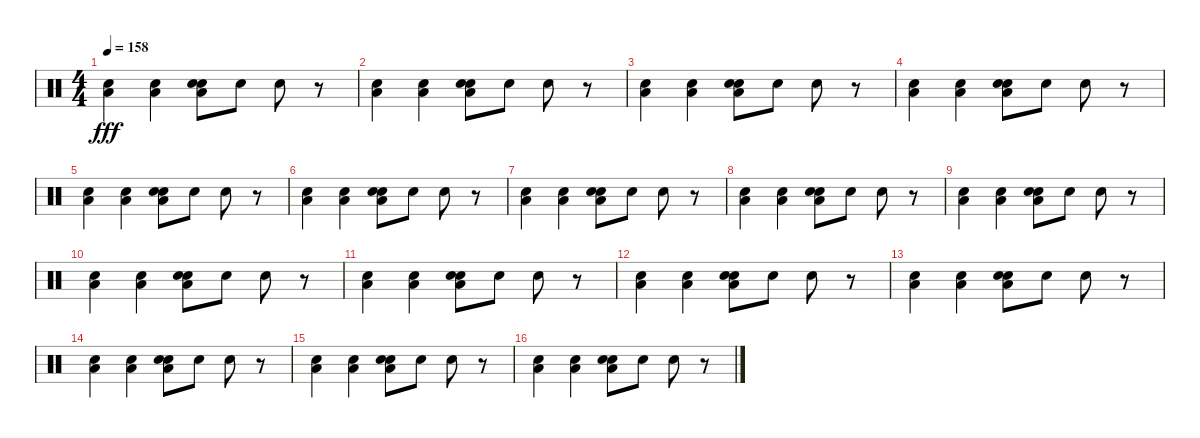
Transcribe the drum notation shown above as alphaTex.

\track "" {instrument percussion}
\staff {score}
\articulation defaults
\ts (4 4)
\tempo 158
\clef neutral
\ks c
("Low Floor Tom (hit)" "Snare (hit) 2").4{dy fff} ("Low Floor Tom (hit)" "Snare (hit) 2").4 ("Electric Snare (hit)" "Low Floor Tom (hit)" "Snare (hit) 2").8 "Electric Snare (hit)".8 "Electric Snare (hit)".8 r.8 |
("Low Floor Tom (hit)" "Electric Snare (hit)").4 ("Low Floor Tom (hit)" "Electric Snare (hit)").4 ("Electric Snare (hit)" "Low Floor Tom (hit)" "Electric Snare (hit)").8 "Electric Snare (hit)".8 "Electric Snare (hit)".8 r.8 |
("Low Floor Tom (hit)" "Electric Snare (hit)").4 ("Low Floor Tom (hit)" "Electric Snare (hit)").4 ("Electric Snare (hit)" "Low Floor Tom (hit)" "Electric Snare (hit)").8 "Electric Snare (hit)".8 "Electric Snare (hit)".8 r.8 |
("Low Floor Tom (hit)" "Electric Snare (hit)").4 ("Low Floor Tom (hit)" "Electric Snare (hit)").4 ("Electric Snare (hit)" "Low Floor Tom (hit)" "Electric Snare (hit)").8 "Electric Snare (hit)".8 "Electric Snare (hit)".8 r.8 |
("Low Floor Tom (hit)" "Electric Snare (hit)").4 ("Low Floor Tom (hit)" "Electric Snare (hit)").4 ("Electric Snare (hit)" "Low Floor Tom (hit)" "Electric Snare (hit)").8 "Electric Snare (hit)".8 "Electric Snare (hit)".8 r.8 |
("Low Floor Tom (hit)" "Snare (hit) 2").4 ("Low Floor Tom (hit)" "Snare (hit) 2").4 ("Electric Snare (hit)" "Low Floor Tom (hit)" "Snare (hit) 2").8 "Electric Snare (hit)".8 "Electric Snare (hit)".8 r.8 |
("Low Floor Tom (hit)" "Snare (hit) 2").4 ("Low Floor Tom (hit)" "Snare (hit) 2").4 ("Electric Snare (hit)" "Low Floor Tom (hit)" "Snare (hit) 2").8 "Electric Snare (hit)".8 "Electric Snare (hit)".8 r.8 |
("Low Floor Tom (hit)" "Electric Snare (hit)").4 ("Low Floor Tom (hit)" "Electric Snare (hit)").4 ("Electric Snare (hit)" "Low Floor Tom (hit)" "Electric Snare (hit)").8 "Electric Snare (hit)".8 "Electric Snare (hit)".8 r.8 |
("Low Floor Tom (hit)" "Electric Snare (hit)").4 ("Low Floor Tom (hit)" "Electric Snare (hit)").4 ("Electric Snare (hit)" "Low Floor Tom (hit)" "Electric Snare (hit)").8 "Electric Snare (hit)".8 "Electric Snare (hit)".8 r.8 |
("Low Floor Tom (hit)" "Electric Snare (hit)").4 ("Low Floor Tom (hit)" "Electric Snare (hit)").4 ("Electric Snare (hit)" "Low Floor Tom (hit)" "Electric Snare (hit)").8 "Electric Snare (hit)".8 "Electric Snare (hit)".8 r.8 |
("Low Floor Tom (hit)" "Electric Snare (hit)").4 ("Low Floor Tom (hit)" "Electric Snare (hit)").4 ("Electric Snare (hit)" "Low Floor Tom (hit)" "Electric Snare (hit)").8 "Electric Snare (hit)".8 "Electric Snare (hit)".8 r.8 |
("Low Floor Tom (hit)" "Snare (hit) 2").4 ("Low Floor Tom (hit)" "Snare (hit) 2").4 ("Electric Snare (hit)" "Low Floor Tom (hit)" "Snare (hit) 2").8 "Electric Snare (hit)".8 "Electric Snare (hit)".8 r.8 |
("Low Floor Tom (hit)" "Snare (hit) 2").4 ("Low Floor Tom (hit)" "Snare (hit) 2").4 ("Electric Snare (hit)" "Low Floor Tom (hit)" "Snare (hit) 2").8 "Electric Snare (hit)".8 "Electric Snare (hit)".8 r.8 |
("Low Floor Tom (hit)" "Electric Snare (hit)").4 ("Low Floor Tom (hit)" "Electric Snare (hit)").4 ("Electric Snare (hit)" "Low Floor Tom (hit)" "Electric Snare (hit)").8 "Electric Snare (hit)".8 "Electric Snare (hit)".8 r.8 |
("Low Floor Tom (hit)" "Electric Snare (hit)").4 ("Low Floor Tom (hit)" "Electric Snare (hit)").4 ("Electric Snare (hit)" "Low Floor Tom (hit)" "Electric Snare (hit)").8 "Electric Snare (hit)".8 "Electric Snare (hit)".8 r.8 |
("Low Floor Tom (hit)" "Electric Snare (hit)").4 ("Low Floor Tom (hit)" "Electric Snare (hit)").4 ("Electric Snare (hit)" "Low Floor Tom (hit)" "Electric Snare (hit)").8 "Electric Snare (hit)".8 "Electric Snare (hit)".8 r.8
